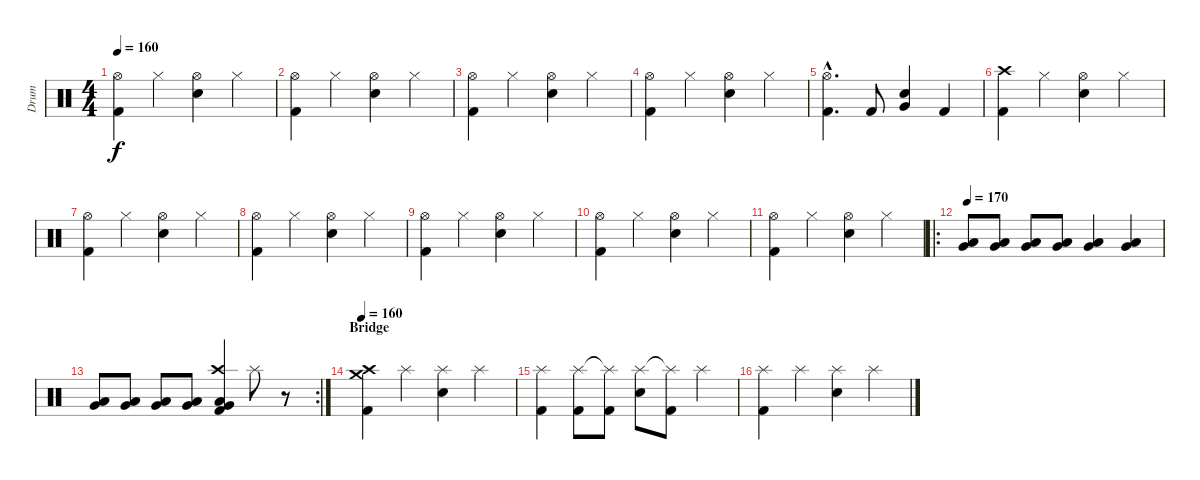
\track ("Drum" "Drum") {instrument percussion}
\staff {score}
\articulation defaults
\ts (4 4)
\tempo 160
\clef neutral
\ks c
("Kick (hit) 2" "Hi-Hat (open)").4{dy f} "Hi-Hat (closed)".4 ("Electric Snare (hit)" "Hi-Hat (open)").4 "Hi-Hat (closed)".4 |
("Kick (hit) 2" "Hi-Hat (open)").4 "Hi-Hat (closed)".4 ("Electric Snare (hit)" "Hi-Hat (open)").4 "Hi-Hat (closed)".4 |
("Kick (hit) 2" "Hi-Hat (open)").4 "Hi-Hat (closed)".4 ("Electric Snare (hit)" "Hi-Hat (open)").4 "Hi-Hat (closed)".4 |
("Kick (hit) 2" "Hi-Hat (open)").4 "Hi-Hat (closed)".4 ("Electric Snare (hit)" "Hi-Hat (open)").4 "Hi-Hat (closed)".4 |
("Kick (hit) 2"{hac} "Hi-Hat (open)"{hac}).4{d} "Kick (hit) 2".8 ("Electric Snare (hit)" "Very Low Tom (hit)").4 "Kick (hit) 2".4 |
\section ("" "")
("Kick (hit) 2" "Crash high (hit)").4 "Hi-Hat (closed)".4 ("Electric Snare (hit)" "Hi-Hat (open)").4 "Hi-Hat (closed)".4 |
("Kick (hit) 2" "Hi-Hat (open)").4 "Hi-Hat (closed)".4 ("Electric Snare (hit)" "Hi-Hat (open)").4 "Hi-Hat (closed)".4 |
("Kick (hit) 2" "Hi-Hat (open)").4 "Hi-Hat (closed)".4 ("Electric Snare (hit)" "Hi-Hat (open)").4 "Hi-Hat (closed)".4 |
("Kick (hit) 2" "Hi-Hat (open)").4 "Hi-Hat (closed)".4 ("Electric Snare (hit)" "Hi-Hat (open)").4 "Hi-Hat (closed)".4 |
("Kick (hit) 2" "Hi-Hat (open)").4 "Hi-Hat (closed)".4 ("Electric Snare (hit)" "Hi-Hat (open)").4 "Hi-Hat (closed)".4 |
("Kick (hit) 2" "Hi-Hat (open)").4 "Hi-Hat (closed)".4 ("Electric Snare (hit)" "Hi-Hat (open)").4 "Hi-Hat (closed)".4 |
\ro
\tempo 170
("Very Low Tom (hit)" "Low Tom (hit)").8 ("Very Low Tom (hit)" "Low Tom (hit)").8 ("Very Low Tom (hit)" "Low Tom (hit)").8 ("Very Low Tom (hit)" "Low Tom (hit)").8 ("Very Low Tom (hit)" "Low Tom (hit)").4 ("Very Low Tom (hit)" "Low Tom (hit)").4 |
\rc 2
("Very Low Tom (hit)" "Low Tom (hit)").8 ("Very Low Tom (hit)" "Low Tom (hit)").8 ("Very Low Tom (hit)" "Low Tom (hit)").8 ("Very Low Tom (hit)" "Low Tom (hit)").8 ("Kick (hit) 2" "Very Low Tom (hit)" "Low Tom (hit)" "Crash high (hit)").4 "Splash (hit)".8 r.8 |
\section ("" "Bridge")
\tempo 160
("Kick (hit) 2" "Crash high (hit)" "Crash medium (hit)").4 "Splash (hit)".4 ("Electric Snare (hit)" "Splash (hit)").4 "Splash (hit)".4 |
("Kick (hit) 2" "Splash (hit)").4 ("Kick (hit) 2" "Splash (hit)").8 ("Kick (hit) 2" "Splash (hit)"{t}).8 ("Electric Snare (hit)" "Splash (hit)").8 ("Kick (hit) 2" "Splash (hit)"{t}).8 "Splash (hit)".4 |
("Kick (hit) 2" "Splash (hit)").4 "Splash (hit)".4 ("Electric Snare (hit)" "Splash (hit)").4 "Splash (hit)".4
